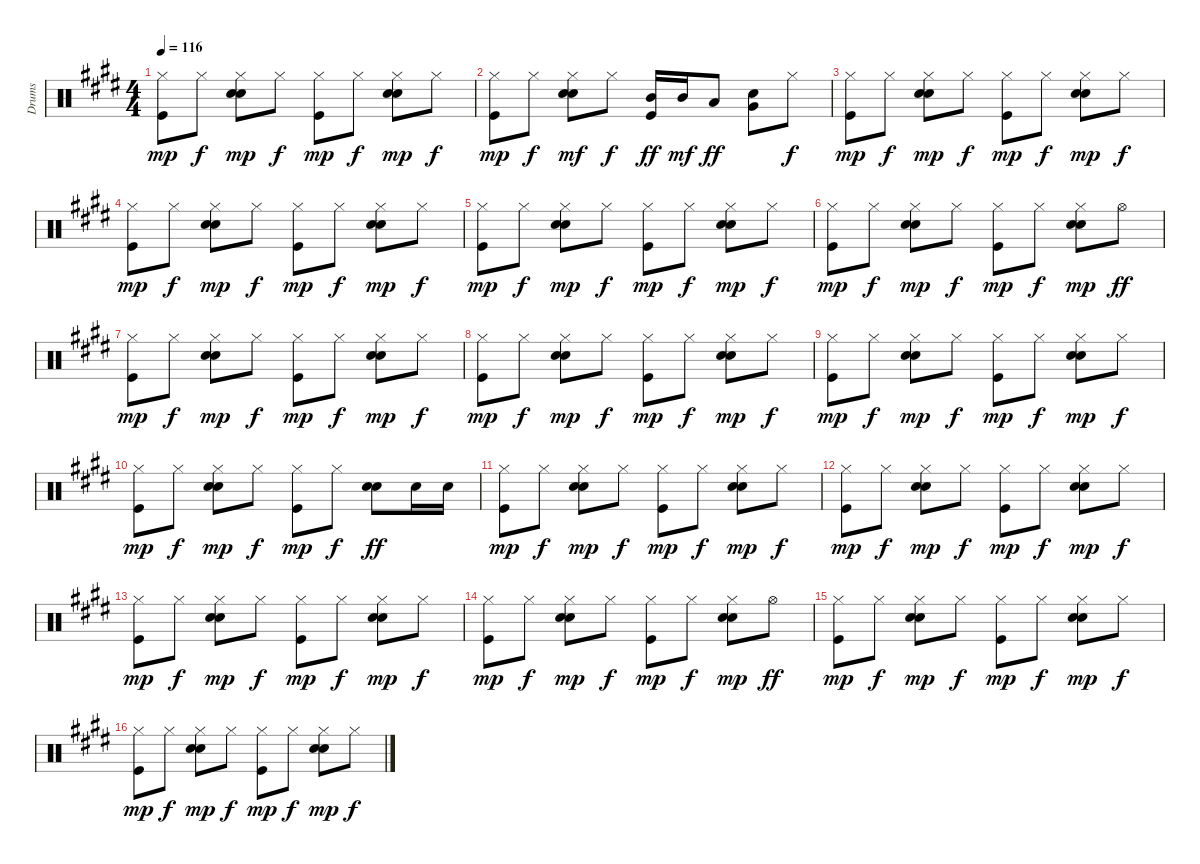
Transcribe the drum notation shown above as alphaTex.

\track ("Drums" "Drums") {instrument percussion}
\staff {score}
\articulation defaults
\ts (4 4)
\tempo 116
\clef neutral
\ks e
("Kick (hit)" "Hi-Hat (closed)").8{dy mp} "Hi-Hat (closed)".8{dy f} ("Hand Clap (hit)" "Electric Snare (hit)" "Hi-Hat (closed)").8{dy mp} "Hi-Hat (closed)".8{dy f} ("Kick (hit)" "Hi-Hat (closed)").8{dy mp} "Hi-Hat (closed)".8{dy f} ("Hand Clap (hit)" "Electric Snare (hit)" "Hi-Hat (closed)").8{dy mp} "Hi-Hat (closed)".8{dy f} |
("Kick (hit)" "Hi-Hat (closed)").8{dy mp} "Hi-Hat (closed)".8{dy f} ("Hand Clap (hit)" "Electric Snare (hit)" "Hi-Hat (closed)").8{dy mf} "Hi-Hat (closed)".8{dy f} ("Kick (hit)" "Mid Tom (hit)").16{dy ff} "Mid Tom (hit)".16{dy mf} "Low Tom (hit)".8{dy ff} ("Hand Clap (hit)" "Very Low Tom (hit)").8 "Hi-Hat (closed)".8{dy f} |
("Kick (hit)" "Hi-Hat (closed)").8{dy mp} "Hi-Hat (closed)".8{dy f} ("Hand Clap (hit)" "Electric Snare (hit)" "Hi-Hat (closed)").8{dy mp} "Hi-Hat (closed)".8{dy f} ("Kick (hit)" "Hi-Hat (closed)").8{dy mp} "Hi-Hat (closed)".8{dy f} ("Hand Clap (hit)" "Electric Snare (hit)" "Hi-Hat (closed)").8{dy mp} "Hi-Hat (closed)".8{dy f} |
("Kick (hit)" "Hi-Hat (closed)").8{dy mp} "Hi-Hat (closed)".8{dy f} ("Hand Clap (hit)" "Electric Snare (hit)" "Hi-Hat (closed)").8{dy mp} "Hi-Hat (closed)".8{dy f} ("Kick (hit)" "Hi-Hat (closed)").8{dy mp} "Hi-Hat (closed)".8{dy f} ("Hand Clap (hit)" "Electric Snare (hit)" "Hi-Hat (closed)").8{dy mp} "Hi-Hat (closed)".8{dy f} |
("Kick (hit)" "Hi-Hat (closed)").8{dy mp} "Hi-Hat (closed)".8{dy f} ("Hand Clap (hit)" "Electric Snare (hit)" "Hi-Hat (closed)").8{dy mp} "Hi-Hat (closed)".8{dy f} ("Kick (hit)" "Hi-Hat (closed)").8{dy mp} "Hi-Hat (closed)".8{dy f} ("Hand Clap (hit)" "Electric Snare (hit)" "Hi-Hat (closed)").8{dy mp} "Hi-Hat (closed)".8{dy f} |
("Kick (hit)" "Hi-Hat (closed)").8{dy mp} "Hi-Hat (closed)".8{dy f} ("Hand Clap (hit)" "Electric Snare (hit)" "Hi-Hat (closed)").8{dy mp} "Hi-Hat (closed)".8{dy f} ("Kick (hit)" "Hi-Hat (closed)").8{dy mp} "Hi-Hat (closed)".8{dy f} ("Hand Clap (hit)" "Electric Snare (hit)" "Hi-Hat (closed)").8{dy mp} "Hi-Hat (open)".8{dy ff} |
("Kick (hit)" "Hi-Hat (closed)").8{dy mp} "Hi-Hat (closed)".8{dy f} ("Hand Clap (hit)" "Electric Snare (hit)" "Hi-Hat (closed)").8{dy mp} "Hi-Hat (closed)".8{dy f} ("Kick (hit)" "Hi-Hat (closed)").8{dy mp} "Hi-Hat (closed)".8{dy f} ("Hand Clap (hit)" "Electric Snare (hit)" "Hi-Hat (closed)").8{dy mp} "Hi-Hat (closed)".8{dy f} |
("Kick (hit)" "Hi-Hat (closed)").8{dy mp} "Hi-Hat (closed)".8{dy f} ("Hand Clap (hit)" "Electric Snare (hit)" "Hi-Hat (closed)").8{dy mp} "Hi-Hat (closed)".8{dy f} ("Kick (hit)" "Hi-Hat (closed)").8{dy mp} "Hi-Hat (closed)".8{dy f} ("Hand Clap (hit)" "Electric Snare (hit)" "Hi-Hat (closed)").8{dy mp} "Hi-Hat (closed)".8{dy f} |
("Kick (hit)" "Hi-Hat (closed)").8{dy mp} "Hi-Hat (closed)".8{dy f} ("Hand Clap (hit)" "Electric Snare (hit)" "Hi-Hat (closed)").8{dy mp} "Hi-Hat (closed)".8{dy f} ("Kick (hit)" "Hi-Hat (closed)").8{dy mp} "Hi-Hat (closed)".8{dy f} ("Hand Clap (hit)" "Electric Snare (hit)" "Hi-Hat (closed)").8{dy mp} "Hi-Hat (closed)".8{dy f} |
("Kick (hit)" "Hi-Hat (closed)").8{dy mp} "Hi-Hat (closed)".8{dy f} ("Hand Clap (hit)" "Electric Snare (hit)" "Hi-Hat (closed)").8{dy mp} "Hi-Hat (closed)".8{dy f} ("Kick (hit)" "Hi-Hat (closed)").8{dy mp} "Hi-Hat (closed)".8{dy f} ("Hand Clap (hit)" "Electric Snare (hit)").8{dy ff} "Electric Snare (hit)".16 "Electric Snare (hit)".16 |
("Kick (hit)" "Hi-Hat (closed)").8{dy mp} "Hi-Hat (closed)".8{dy f} ("Hand Clap (hit)" "Electric Snare (hit)" "Hi-Hat (closed)").8{dy mp} "Hi-Hat (closed)".8{dy f} ("Kick (hit)" "Hi-Hat (closed)").8{dy mp} "Hi-Hat (closed)".8{dy f} ("Hand Clap (hit)" "Electric Snare (hit)" "Hi-Hat (closed)").8{dy mp} "Hi-Hat (closed)".8{dy f} |
("Kick (hit)" "Hi-Hat (closed)").8{dy mp} "Hi-Hat (closed)".8{dy f} ("Hand Clap (hit)" "Electric Snare (hit)" "Hi-Hat (closed)").8{dy mp} "Hi-Hat (closed)".8{dy f} ("Kick (hit)" "Hi-Hat (closed)").8{dy mp} "Hi-Hat (closed)".8{dy f} ("Hand Clap (hit)" "Electric Snare (hit)" "Hi-Hat (closed)").8{dy mp} "Hi-Hat (closed)".8{dy f} |
("Kick (hit)" "Hi-Hat (closed)").8{dy mp} "Hi-Hat (closed)".8{dy f} ("Hand Clap (hit)" "Electric Snare (hit)" "Hi-Hat (closed)").8{dy mp} "Hi-Hat (closed)".8{dy f} ("Kick (hit)" "Hi-Hat (closed)").8{dy mp} "Hi-Hat (closed)".8{dy f} ("Hand Clap (hit)" "Electric Snare (hit)" "Hi-Hat (closed)").8{dy mp} "Hi-Hat (closed)".8{dy f} |
("Kick (hit)" "Hi-Hat (closed)").8{dy mp} "Hi-Hat (closed)".8{dy f} ("Hand Clap (hit)" "Electric Snare (hit)" "Hi-Hat (closed)").8{dy mp} "Hi-Hat (closed)".8{dy f} ("Kick (hit)" "Hi-Hat (closed)").8{dy mp} "Hi-Hat (closed)".8{dy f} ("Hand Clap (hit)" "Electric Snare (hit)" "Hi-Hat (closed)").8{dy mp} "Hi-Hat (open)".8{dy ff} |
("Kick (hit)" "Hi-Hat (closed)").8{dy mp} "Hi-Hat (closed)".8{dy f} ("Hand Clap (hit)" "Electric Snare (hit)" "Hi-Hat (closed)").8{dy mp} "Hi-Hat (closed)".8{dy f} ("Kick (hit)" "Hi-Hat (closed)").8{dy mp} "Hi-Hat (closed)".8{dy f} ("Hand Clap (hit)" "Electric Snare (hit)" "Hi-Hat (closed)").8{dy mp} "Hi-Hat (closed)".8{dy f} |
("Kick (hit)" "Hi-Hat (closed)").8{dy mp} "Hi-Hat (closed)".8{dy f} ("Hand Clap (hit)" "Electric Snare (hit)" "Hi-Hat (closed)").8{dy mp} "Hi-Hat (closed)".8{dy f} ("Kick (hit)" "Hi-Hat (closed)").8{dy mp} "Hi-Hat (closed)".8{dy f} ("Hand Clap (hit)" "Electric Snare (hit)" "Hi-Hat (closed)").8{dy mp} "Hi-Hat (closed)".8{dy f}
